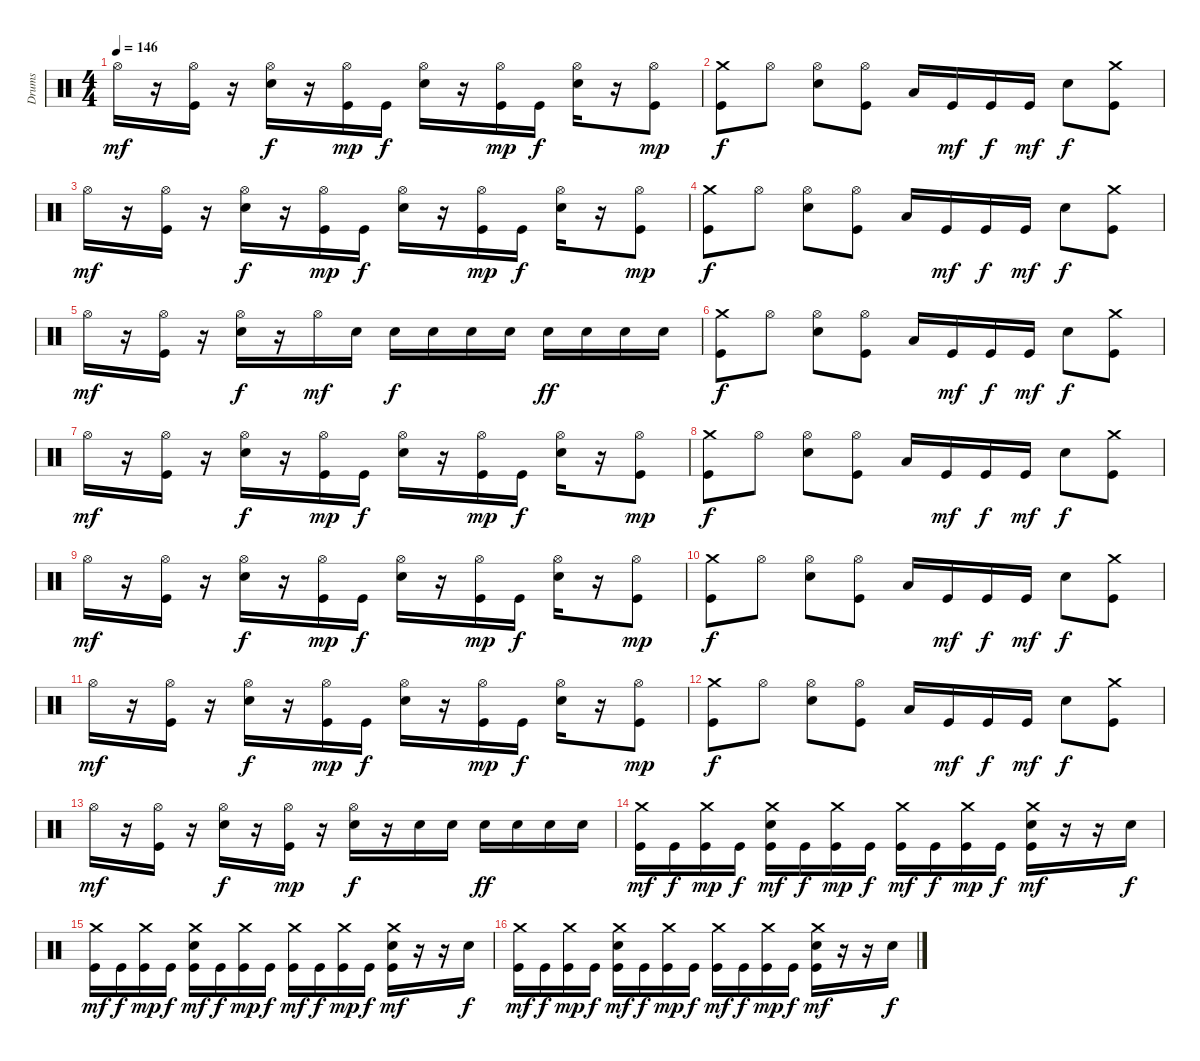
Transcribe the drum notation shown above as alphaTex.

\track ("Drums" "Drums") {instrument percussion}
\staff {score}
\articulation defaults
\ts (4 4)
\tempo 146
\clef neutral
\ks c "Hi-Hat (open)".16{dy mf}
r.16 ("Hi-Hat (open)" "Kick (hit)").16 r.16 ("Hi-Hat (open)" "Snare (hit) 2").16{dy f} r.16 ("Hi-Hat (open)" "Kick (hit)").16{dy mp} "Kick (hit)".16{dy f} ("Hi-Hat (open)" "Snare (hit) 2").16 r.16 ("Hi-Hat (open)" "Kick (hit)").16{dy mp} "Kick (hit)".16{dy f} ("Hi-Hat (open)" "Snare (hit) 2").16 r.16 ("Hi-Hat (open)" "Kick (hit)").8{dy mp} |
("Crash medium (hit)" "Kick (hit)").8{dy f} "Hi-Hat (open)".8 ("Hi-Hat (open)" "Snare (hit) 2").8 ("Hi-Hat (open)" "Kick (hit)").8 "Low Floor Tom (hit)".16 "Kick (hit)".16{dy mf} "Kick (hit)".16{dy f} "Kick (hit)".16{dy mf} "Snare (hit) 2".8{dy f} ("Crash medium (hit)" "Kick (hit)").8 |
"Hi-Hat (open)".16{dy mf} r.16 ("Hi-Hat (open)" "Kick (hit)").16 r.16 ("Hi-Hat (open)" "Snare (hit) 2").16{dy f} r.16 ("Hi-Hat (open)" "Kick (hit)").16{dy mp} "Kick (hit)".16{dy f} ("Hi-Hat (open)" "Snare (hit) 2").16 r.16 ("Hi-Hat (open)" "Kick (hit)").16{dy mp} "Kick (hit)".16{dy f} ("Hi-Hat (open)" "Snare (hit) 2").16 r.16 ("Hi-Hat (open)" "Kick (hit)").8{dy mp} |
("Crash medium (hit)" "Kick (hit)").8{dy f} "Hi-Hat (open)".8 ("Hi-Hat (open)" "Snare (hit) 2").8 ("Hi-Hat (open)" "Kick (hit)").8 "Low Floor Tom (hit)".16 "Kick (hit)".16{dy mf} "Kick (hit)".16{dy f} "Kick (hit)".16{dy mf} "Snare (hit) 2".8{dy f} ("Crash medium (hit)" "Kick (hit)").8 |
"Hi-Hat (open)".16{dy mf} r.16 ("Hi-Hat (open)" "Kick (hit)").16 r.16 ("Hi-Hat (open)" "Snare (hit) 2").16{dy f} r.16 "Hi-Hat (open)".16{dy mf} "Snare (hit) 2".16 "Snare (hit) 2".16{dy f} "Snare (hit) 2".16 "Snare (hit) 2".16 "Snare (hit) 2".16 "Snare (hit) 2".16{dy ff} "Snare (hit) 2".16 "Snare (hit) 2".16 "Snare (hit) 2".16 |
("Crash medium (hit)" "Kick (hit)").8{dy f} "Hi-Hat (open)".8 ("Hi-Hat (open)" "Snare (hit) 2").8 ("Hi-Hat (open)" "Kick (hit)").8 "Low Floor Tom (hit)".16 "Kick (hit)".16{dy mf} "Kick (hit)".16{dy f} "Kick (hit)".16{dy mf} "Snare (hit) 2".8{dy f} ("Crash medium (hit)" "Kick (hit)").8 |
"Hi-Hat (open)".16{dy mf} r.16 ("Hi-Hat (open)" "Kick (hit)").16 r.16 ("Hi-Hat (open)" "Snare (hit) 2").16{dy f} r.16 ("Hi-Hat (open)" "Kick (hit)").16{dy mp} "Kick (hit)".16{dy f} ("Hi-Hat (open)" "Snare (hit) 2").16 r.16 ("Hi-Hat (open)" "Kick (hit)").16{dy mp} "Kick (hit)".16{dy f} ("Hi-Hat (open)" "Snare (hit) 2").16 r.16 ("Hi-Hat (open)" "Kick (hit)").8{dy mp} |
("Crash medium (hit)" "Kick (hit)").8{dy f} "Hi-Hat (open)".8 ("Hi-Hat (open)" "Snare (hit) 2").8 ("Hi-Hat (open)" "Kick (hit)").8 "Low Floor Tom (hit)".16 "Kick (hit)".16{dy mf} "Kick (hit)".16{dy f} "Kick (hit)".16{dy mf} "Snare (hit) 2".8{dy f} ("Crash medium (hit)" "Kick (hit)").8 |
"Hi-Hat (open)".16{dy mf} r.16 ("Hi-Hat (open)" "Kick (hit)").16 r.16 ("Hi-Hat (open)" "Snare (hit) 2").16{dy f} r.16 ("Hi-Hat (open)" "Kick (hit)").16{dy mp} "Kick (hit)".16{dy f} ("Hi-Hat (open)" "Snare (hit) 2").16 r.16 ("Hi-Hat (open)" "Kick (hit)").16{dy mp} "Kick (hit)".16{dy f} ("Hi-Hat (open)" "Snare (hit) 2").16 r.16 ("Hi-Hat (open)" "Kick (hit)").8{dy mp} |
("Crash medium (hit)" "Kick (hit)").8{dy f} "Hi-Hat (open)".8 ("Hi-Hat (open)" "Snare (hit) 2").8 ("Hi-Hat (open)" "Kick (hit)").8 "Low Floor Tom (hit)".16 "Kick (hit)".16{dy mf} "Kick (hit)".16{dy f} "Kick (hit)".16{dy mf} "Snare (hit) 2".8{dy f} ("Crash medium (hit)" "Kick (hit)").8 |
"Hi-Hat (open)".16{dy mf} r.16 ("Hi-Hat (open)" "Kick (hit)").16 r.16 ("Hi-Hat (open)" "Snare (hit) 2").16{dy f} r.16 ("Hi-Hat (open)" "Kick (hit)").16{dy mp} "Kick (hit)".16{dy f} ("Hi-Hat (open)" "Snare (hit) 2").16 r.16 ("Hi-Hat (open)" "Kick (hit)").16{dy mp} "Kick (hit)".16{dy f} ("Hi-Hat (open)" "Snare (hit) 2").16 r.16 ("Hi-Hat (open)" "Kick (hit)").8{dy mp} |
("Crash medium (hit)" "Kick (hit)").8{dy f} "Hi-Hat (open)".8 ("Hi-Hat (open)" "Snare (hit) 2").8 ("Hi-Hat (open)" "Kick (hit)").8 "Low Floor Tom (hit)".16 "Kick (hit)".16{dy mf} "Kick (hit)".16{dy f} "Kick (hit)".16{dy mf} "Snare (hit) 2".8{dy f} ("Crash medium (hit)" "Kick (hit)").8 |
"Hi-Hat (open)".16{dy mf} r.16 ("Hi-Hat (open)" "Kick (hit)").16 r.16 ("Hi-Hat (open)" "Snare (hit) 2").16{dy f} r.16 ("Hi-Hat (open)" "Kick (hit)").16{dy mp} r.16 ("Hi-Hat (open)" "Snare (hit) 2").16{dy f} r.16 "Snare (hit) 2".16 "Snare (hit) 2".16 "Snare (hit) 2".16{dy ff} "Snare (hit) 2".16 "Snare (hit) 2".16 "Snare (hit) 2".16 |
("Crash medium (hit)" "Kick (hit)").16{dy mf} "Kick (hit)".16{dy f} ("Crash medium (hit)" "Kick (hit)").16{dy mp} "Kick (hit)".16{dy f} ("Crash medium (hit)" "Snare (hit) 2" "Kick (hit)").16{dy mf} "Kick (hit)".16{dy f} ("Crash medium (hit)" "Kick (hit)").16{dy mp} "Kick (hit)".16{dy f} ("Crash medium (hit)" "Kick (hit)").16{dy mf} "Kick (hit)".16{dy f} ("Crash medium (hit)" "Kick (hit)").16{dy mp} "Kick (hit)".16{dy f} ("Crash medium (hit)" "Snare (hit) 2" "Kick (hit)").16{dy mf} r.16 r.16 "Snare (hit) 2".16{dy f} |
("Crash medium (hit)" "Kick (hit)").16{dy mf} "Kick (hit)".16{dy f} ("Crash medium (hit)" "Kick (hit)").16{dy mp} "Kick (hit)".16{dy f} ("Crash medium (hit)" "Snare (hit) 2" "Kick (hit)").16{dy mf} "Kick (hit)".16{dy f} ("Crash medium (hit)" "Kick (hit)").16{dy mp} "Kick (hit)".16{dy f} ("Crash medium (hit)" "Kick (hit)").16{dy mf} "Kick (hit)".16{dy f} ("Crash medium (hit)" "Kick (hit)").16{dy mp} "Kick (hit)".16{dy f} ("Crash medium (hit)" "Snare (hit) 2" "Kick (hit)").16{dy mf} r.16 r.16 "Snare (hit) 2".16{dy f} |
("Crash medium (hit)" "Kick (hit)").16{dy mf} "Kick (hit)".16{dy f} ("Crash medium (hit)" "Kick (hit)").16{dy mp} "Kick (hit)".16{dy f} ("Crash medium (hit)" "Snare (hit) 2" "Kick (hit)").16{dy mf} "Kick (hit)".16{dy f} ("Crash medium (hit)" "Kick (hit)").16{dy mp} "Kick (hit)".16{dy f} ("Crash medium (hit)" "Kick (hit)").16{dy mf} "Kick (hit)".16{dy f} ("Crash medium (hit)" "Kick (hit)").16{dy mp} "Kick (hit)".16{dy f} ("Crash medium (hit)" "Snare (hit) 2" "Kick (hit)").16{dy mf} r.16 r.16 "Snare (hit) 2".16{dy f}
